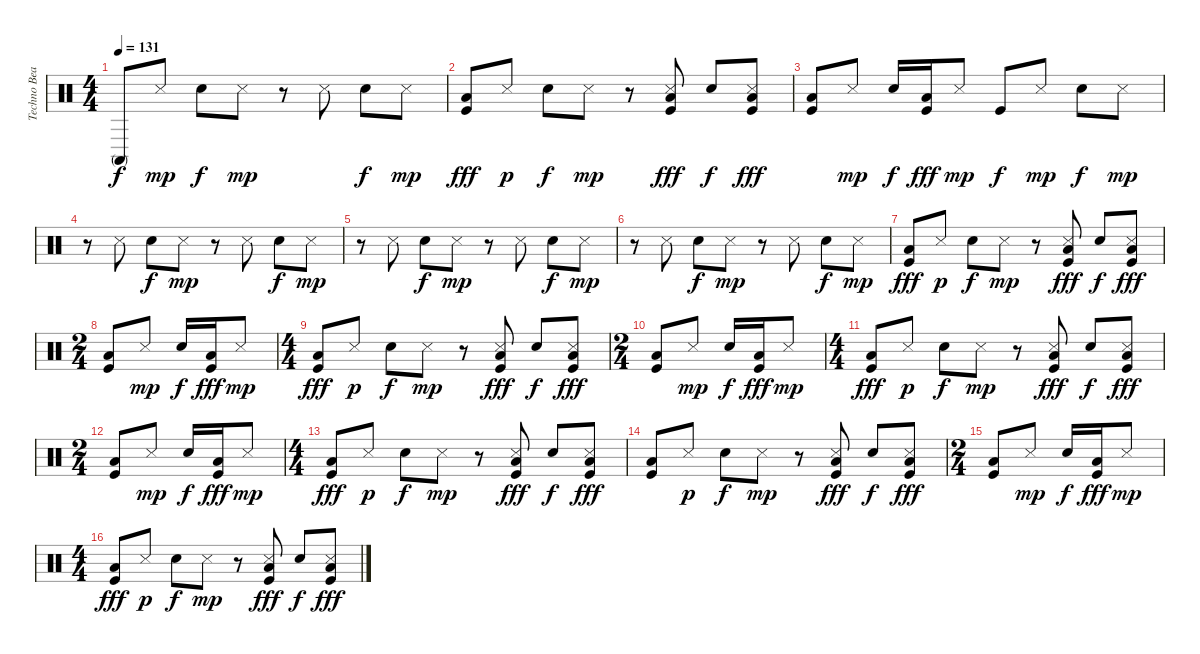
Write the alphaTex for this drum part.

\track ("Techno Beat" "Techno Bea") {instrument percussion}
\staff {score}
\articulation defaults
\ts (4 4)
\tempo 131
\clef neutral
\ks c "Conga high (mute)".8{dy f} "Snare (side stick) 3".8{dy mp} "Electric Snare (hit)".8{dy f} "Snare (side stick) 3".8{dy mp}
r.8 "Snare (side stick) 3".8 "Electric Snare (hit)".8{dy f} "Snare (side stick) 3".8{dy mp} |
("Low Tom (hit)" "Kick (hit)").8{dy fff} "Snare (side stick) 3".8{dy p} "Electric Snare (hit)".8{dy f} "Snare (side stick) 3".8{dy mp} r.8 ("Snare (side stick) 3" "Low Tom (hit)" "Kick (hit)").8{dy fff} "Electric Snare (hit)".8{dy f} ("Snare (side stick) 3" "Low Tom (hit)" "Kick (hit)").8{dy fff} |
("Low Tom (hit)" "Kick (hit)").8 "Snare (side stick) 3".8{dy mp} "Electric Snare (hit)".16{dy f} ("Low Tom (hit)" "Kick (hit)").16{dy fff} "Snare (side stick) 3".8{dy mp} "Kick (hit)".8{dy f} "Snare (side stick) 3".8{dy mp} "Electric Snare (hit)".8{dy f} "Snare (side stick) 3".8{dy mp} |
r.8 "Snare (side stick) 3".8 "Electric Snare (hit)".8{dy f} "Snare (side stick) 3".8{dy mp} r.8 "Snare (side stick) 3".8 "Electric Snare (hit)".8{dy f} "Snare (side stick) 3".8{dy mp} |
r.8 "Snare (side stick) 3".8 "Electric Snare (hit)".8{dy f} "Snare (side stick) 3".8{dy mp} r.8 "Snare (side stick) 3".8 "Electric Snare (hit)".8{dy f} "Snare (side stick) 3".8{dy mp} |
r.8 "Snare (side stick) 3".8 "Electric Snare (hit)".8{dy f} "Snare (side stick) 3".8{dy mp} r.8 "Snare (side stick) 3".8 "Electric Snare (hit)".8{dy f} "Snare (side stick) 3".8{dy mp} |
("Low Tom (hit)" "Kick (hit)").8{dy fff} "Snare (side stick) 3".8{dy p} "Electric Snare (hit)".8{dy f} "Snare (side stick) 3".8{dy mp} r.8 ("Snare (side stick) 3" "Low Tom (hit)" "Kick (hit)").8{dy fff} "Electric Snare (hit)".8{dy f} ("Snare (side stick) 3" "Low Tom (hit)" "Kick (hit)").8{dy fff} |
\ts (2 4)
("Low Tom (hit)" "Kick (hit)").8 "Snare (side stick) 3".8{dy mp} "Electric Snare (hit)".16{dy f} ("Low Tom (hit)" "Kick (hit)").16{dy fff} "Snare (side stick) 3".8{dy mp} |
\ts (4 4)
("Low Tom (hit)" "Kick (hit)").8{dy fff} "Snare (side stick) 3".8{dy p} "Electric Snare (hit)".8{dy f} "Snare (side stick) 3".8{dy mp} r.8 ("Snare (side stick) 3" "Low Tom (hit)" "Kick (hit)").8{dy fff} "Electric Snare (hit)".8{dy f} ("Snare (side stick) 3" "Low Tom (hit)" "Kick (hit)").8{dy fff} |
\ts (2 4)
("Low Tom (hit)" "Kick (hit)").8 "Snare (side stick) 3".8{dy mp} "Electric Snare (hit)".16{dy f} ("Low Tom (hit)" "Kick (hit)").16{dy fff} "Snare (side stick) 3".8{dy mp} |
\ts (4 4)
("Low Tom (hit)" "Kick (hit)").8{dy fff} "Snare (side stick) 3".8{dy p} "Electric Snare (hit)".8{dy f} "Snare (side stick) 3".8{dy mp} r.8 ("Snare (side stick) 3" "Low Tom (hit)" "Kick (hit)").8{dy fff} "Electric Snare (hit)".8{dy f} ("Snare (side stick) 3" "Low Tom (hit)" "Kick (hit)").8{dy fff} |
\ts (2 4)
("Low Tom (hit)" "Kick (hit)").8 "Snare (side stick) 3".8{dy mp} "Electric Snare (hit)".16{dy f} ("Low Tom (hit)" "Kick (hit)").16{dy fff} "Snare (side stick) 3".8{dy mp} |
\ts (4 4)
("Low Tom (hit)" "Kick (hit)").8{dy fff} "Snare (side stick) 3".8{dy p} "Electric Snare (hit)".8{dy f} "Snare (side stick) 3".8{dy mp} r.8 ("Snare (side stick) 3" "Low Tom (hit)" "Kick (hit)").8{dy fff} "Electric Snare (hit)".8{dy f} ("Snare (side stick) 3" "Low Tom (hit)" "Kick (hit)").8{dy fff} |
("Low Tom (hit)" "Kick (hit)").8 "Snare (side stick) 3".8{dy p} "Electric Snare (hit)".8{dy f} "Snare (side stick) 3".8{dy mp} r.8 ("Snare (side stick) 3" "Low Tom (hit)" "Kick (hit)").8{dy fff} "Electric Snare (hit)".8{dy f} ("Snare (side stick) 3" "Low Tom (hit)" "Kick (hit)").8{dy fff} |
\ts (2 4)
("Low Tom (hit)" "Kick (hit)").8 "Snare (side stick) 3".8{dy mp} "Electric Snare (hit)".16{dy f} ("Low Tom (hit)" "Kick (hit)").16{dy fff} "Snare (side stick) 3".8{dy mp} |
\ts (4 4)
("Low Tom (hit)" "Kick (hit)").8{dy fff} "Snare (side stick) 3".8{dy p} "Electric Snare (hit)".8{dy f} "Snare (side stick) 3".8{dy mp} r.8 ("Snare (side stick) 3" "Low Tom (hit)" "Kick (hit)").8{dy fff} "Electric Snare (hit)".8{dy f} ("Snare (side stick) 3" "Low Tom (hit)" "Kick (hit)").8{dy fff}
